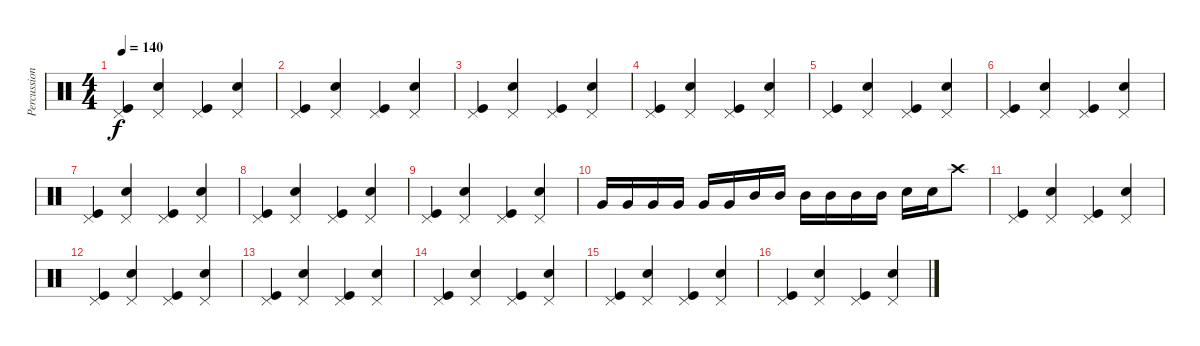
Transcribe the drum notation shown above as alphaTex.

\track ("Percussion" "Percussion") {instrument percussion}
\staff {score}
\articulation defaults
\ts (4 4)
\tempo 140
\clef neutral
\ks c
("Kick (hit)" "Pedal Hi-Hat (hit)").4{dy f} ("Snare (hit) 2" "Pedal Hi-Hat (hit)").4 ("Kick (hit)" "Pedal Hi-Hat (hit)").4 ("Snare (hit) 2" "Pedal Hi-Hat (hit)").4 |
("Kick (hit)" "Pedal Hi-Hat (hit)").4 ("Snare (hit) 2" "Pedal Hi-Hat (hit)").4 ("Kick (hit)" "Pedal Hi-Hat (hit)").4 ("Snare (hit) 2" "Pedal Hi-Hat (hit)").4 |
("Kick (hit)" "Pedal Hi-Hat (hit)").4 ("Snare (hit) 2" "Pedal Hi-Hat (hit)").4 ("Kick (hit)" "Pedal Hi-Hat (hit)").4 ("Snare (hit) 2" "Pedal Hi-Hat (hit)").4 |
("Kick (hit)" "Pedal Hi-Hat (hit)").4 ("Snare (hit) 2" "Pedal Hi-Hat (hit)").4 ("Kick (hit)" "Pedal Hi-Hat (hit)").4 ("Snare (hit) 2" "Pedal Hi-Hat (hit)").4 |
("Kick (hit)" "Pedal Hi-Hat (hit)").4 ("Snare (hit) 2" "Pedal Hi-Hat (hit)").4 ("Kick (hit)" "Pedal Hi-Hat (hit)").4 ("Snare (hit) 2" "Pedal Hi-Hat (hit)").4 |
("Kick (hit)" "Pedal Hi-Hat (hit)").4 ("Snare (hit) 2" "Pedal Hi-Hat (hit)").4 ("Kick (hit)" "Pedal Hi-Hat (hit)").4 ("Snare (hit) 2" "Pedal Hi-Hat (hit)").4 |
("Kick (hit)" "Pedal Hi-Hat (hit)").4 ("Snare (hit) 2" "Pedal Hi-Hat (hit)").4 ("Kick (hit)" "Pedal Hi-Hat (hit)").4 ("Snare (hit) 2" "Pedal Hi-Hat (hit)").4 |
("Kick (hit)" "Pedal Hi-Hat (hit)").4 ("Snare (hit) 2" "Pedal Hi-Hat (hit)").4 ("Kick (hit)" "Pedal Hi-Hat (hit)").4 ("Snare (hit) 2" "Pedal Hi-Hat (hit)").4 |
("Kick (hit)" "Pedal Hi-Hat (hit)").4 ("Snare (hit) 2" "Pedal Hi-Hat (hit)").4 ("Kick (hit)" "Pedal Hi-Hat (hit)").4 ("Snare (hit) 2" "Pedal Hi-Hat (hit)").4 |
"Very Low Tom (hit)".16 "Very Low Tom (hit)".16 "Very Low Tom (hit)".16 "Very Low Tom (hit)".16 "Very Low Tom (hit)".16 "Very Low Tom (hit)".16 "Mid Tom (hit)".16 "Mid Tom (hit)".16 "Mid Tom (hit)".16 "Mid Tom (hit)".16 "Mid Tom (hit)".16 "Mid Tom (hit)".16 "Snare (hit) 2".16 "Snare (hit) 2".16 "Crash high (hit)".8 |
("Kick (hit)" "Pedal Hi-Hat (hit)").4 ("Snare (hit) 2" "Pedal Hi-Hat (hit)").4 ("Kick (hit)" "Pedal Hi-Hat (hit)").4 ("Snare (hit) 2" "Pedal Hi-Hat (hit)").4 |
("Kick (hit)" "Pedal Hi-Hat (hit)").4 ("Snare (hit) 2" "Pedal Hi-Hat (hit)").4 ("Kick (hit)" "Pedal Hi-Hat (hit)").4 ("Snare (hit) 2" "Pedal Hi-Hat (hit)").4 |
("Kick (hit)" "Pedal Hi-Hat (hit)").4 ("Snare (hit) 2" "Pedal Hi-Hat (hit)").4 ("Kick (hit)" "Pedal Hi-Hat (hit)").4 ("Snare (hit) 2" "Pedal Hi-Hat (hit)").4 |
("Kick (hit)" "Pedal Hi-Hat (hit)").4 ("Snare (hit) 2" "Pedal Hi-Hat (hit)").4 ("Kick (hit)" "Pedal Hi-Hat (hit)").4 ("Snare (hit) 2" "Pedal Hi-Hat (hit)").4 |
("Kick (hit)" "Pedal Hi-Hat (hit)").4 ("Snare (hit) 2" "Pedal Hi-Hat (hit)").4 ("Kick (hit)" "Pedal Hi-Hat (hit)").4 ("Snare (hit) 2" "Pedal Hi-Hat (hit)").4 |
("Kick (hit)" "Pedal Hi-Hat (hit)").4 ("Snare (hit) 2" "Pedal Hi-Hat (hit)").4 ("Kick (hit)" "Pedal Hi-Hat (hit)").4 ("Snare (hit) 2" "Pedal Hi-Hat (hit)").4
